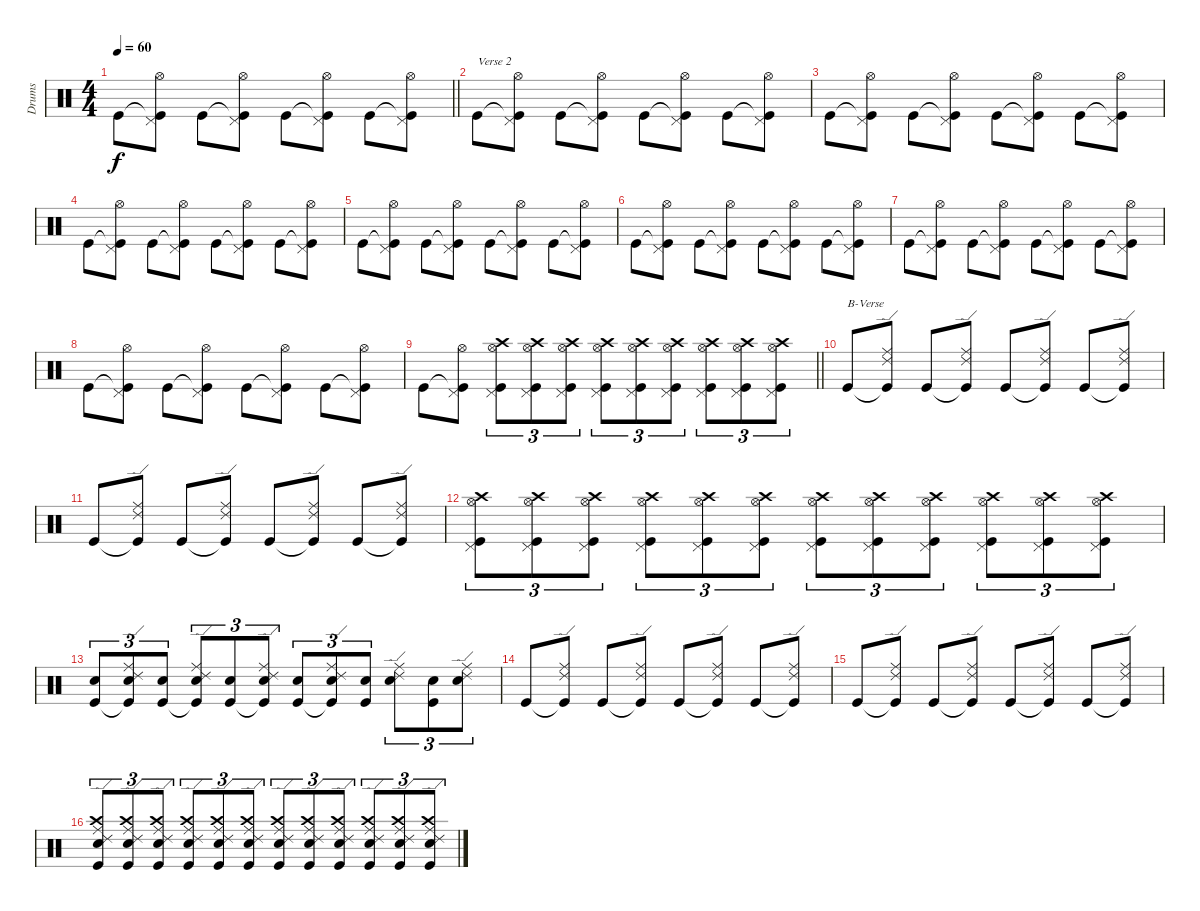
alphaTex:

\track ("Drums" "Drums") {instrument percussion}
\staff {score}
\articulation defaults
\ts (4 4)
\tempo 60
\clef neutral
\barLineRight lightlight
\ks c "Kick (hit)".8{dy f}
("Kick (hit)"{t} "Pedal Hi-Hat (hit)" "Hi-Hat (open)").8 "Kick (hit)".8 ("Kick (hit)"{t} "Pedal Hi-Hat (hit)" "Hi-Hat (open)").8 "Kick (hit)".8 ("Kick (hit)"{t} "Pedal Hi-Hat (hit)" "Hi-Hat (open)").8 "Kick (hit)".8 ("Kick (hit)"{t} "Pedal Hi-Hat (hit)" "Hi-Hat (open)").8 |
"Kick (hit)".8{txt "Verse 2"} ("Kick (hit)"{t} "Pedal Hi-Hat (hit)" "Hi-Hat (open)").8 "Kick (hit)".8 ("Kick (hit)"{t} "Pedal Hi-Hat (hit)" "Hi-Hat (open)").8 "Kick (hit)".8 ("Kick (hit)"{t} "Pedal Hi-Hat (hit)" "Hi-Hat (open)").8 "Kick (hit)".8 ("Kick (hit)"{t} "Pedal Hi-Hat (hit)" "Hi-Hat (open)").8 |
"Kick (hit)".8 ("Kick (hit)"{t} "Pedal Hi-Hat (hit)" "Hi-Hat (open)").8 "Kick (hit)".8 ("Kick (hit)"{t} "Pedal Hi-Hat (hit)" "Hi-Hat (open)").8 "Kick (hit)".8 ("Kick (hit)"{t} "Pedal Hi-Hat (hit)" "Hi-Hat (open)").8 "Kick (hit)".8 ("Kick (hit)"{t} "Pedal Hi-Hat (hit)" "Hi-Hat (open)").8 |
"Kick (hit)".8 ("Kick (hit)"{t} "Pedal Hi-Hat (hit)" "Hi-Hat (open)").8 "Kick (hit)".8 ("Kick (hit)"{t} "Pedal Hi-Hat (hit)" "Hi-Hat (open)").8 "Kick (hit)".8 ("Kick (hit)"{t} "Pedal Hi-Hat (hit)" "Hi-Hat (open)").8 "Kick (hit)".8 ("Kick (hit)"{t} "Pedal Hi-Hat (hit)" "Hi-Hat (open)").8 |
"Kick (hit)".8 ("Kick (hit)"{t} "Pedal Hi-Hat (hit)" "Hi-Hat (open)").8 "Kick (hit)".8 ("Kick (hit)"{t} "Pedal Hi-Hat (hit)" "Hi-Hat (open)").8 "Kick (hit)".8 ("Kick (hit)"{t} "Pedal Hi-Hat (hit)" "Hi-Hat (open)").8 "Kick (hit)".8 ("Kick (hit)"{t} "Pedal Hi-Hat (hit)" "Hi-Hat (open)").8 |
"Kick (hit)".8 ("Kick (hit)"{t} "Pedal Hi-Hat (hit)" "Hi-Hat (open)").8 "Kick (hit)".8 ("Kick (hit)"{t} "Pedal Hi-Hat (hit)" "Hi-Hat (open)").8 "Kick (hit)".8 ("Kick (hit)"{t} "Pedal Hi-Hat (hit)" "Hi-Hat (open)").8 "Kick (hit)".8 ("Kick (hit)"{t} "Pedal Hi-Hat (hit)" "Hi-Hat (open)").8 |
"Kick (hit)".8 ("Kick (hit)"{t} "Pedal Hi-Hat (hit)" "Hi-Hat (open)").8 "Kick (hit)".8 ("Kick (hit)"{t} "Pedal Hi-Hat (hit)" "Hi-Hat (open)").8 "Kick (hit)".8 ("Kick (hit)"{t} "Pedal Hi-Hat (hit)" "Hi-Hat (open)").8 "Kick (hit)".8 ("Kick (hit)"{t} "Pedal Hi-Hat (hit)" "Hi-Hat (open)").8 |
"Kick (hit)".8 ("Kick (hit)"{t} "Pedal Hi-Hat (hit)" "Hi-Hat (open)").8 "Kick (hit)".8 ("Kick (hit)"{t} "Pedal Hi-Hat (hit)" "Hi-Hat (open)").8 "Kick (hit)".8 ("Kick (hit)"{t} "Pedal Hi-Hat (hit)" "Hi-Hat (open)").8 "Kick (hit)".8 ("Kick (hit)"{t} "Pedal Hi-Hat (hit)" "Hi-Hat (open)").8 |
\barLineRight lightlight "Kick (hit)".8
("Kick (hit)"{t} "Pedal Hi-Hat (hit)" "Hi-Hat (open)").8 ("Kick (hit)" "Pedal Hi-Hat (hit)" "Hi-Hat (open)" "Crash high (hit)").8{tu (3 2)} ("Kick (hit)" "Pedal Hi-Hat (hit)" "Hi-Hat (open)" "Crash high (hit)").8{tu (3 2)} ("Kick (hit)" "Pedal Hi-Hat (hit)" "Hi-Hat (open)" "Crash high (hit)").8{tu (3 2)} ("Kick (hit)" "Pedal Hi-Hat (hit)" "Hi-Hat (open)" "Crash high (hit)").8{tu (3 2)} ("Kick (hit)" "Pedal Hi-Hat (hit)" "Hi-Hat (open)" "Crash high (hit)").8{tu (3 2)} ("Kick (hit)" "Pedal Hi-Hat (hit)" "Hi-Hat (open)" "Crash high (hit)").8{tu (3 2)} ("Kick (hit)" "Pedal Hi-Hat (hit)" "Hi-Hat (open)" "Crash high (hit)").8{tu (3 2)} ("Kick (hit)" "Pedal Hi-Hat (hit)" "Hi-Hat (open)" "Crash high (hit)").8{tu (3 2)} ("Kick (hit)" "Pedal Hi-Hat (hit)" "Hi-Hat (open)" "Crash high (hit)").8{tu (3 2)} |
"Kick (hit)".8{txt "B-Verse"} ("Kick (hit)"{t} "Ride (middle)" "Ride (edge) 2").8 "Kick (hit)".8 ("Kick (hit)"{t} "Ride (middle)" "Ride (edge) 2").8 "Kick (hit)".8 ("Kick (hit)"{t} "Ride (middle)" "Ride (edge) 2").8 "Kick (hit)".8 ("Kick (hit)"{t} "Ride (middle)" "Ride (edge) 2").8 |
"Kick (hit)".8 ("Kick (hit)"{t} "Ride (middle)" "Ride (edge) 2").8 "Kick (hit)".8 ("Kick (hit)"{t} "Ride (middle)" "Ride (edge) 2").8 "Kick (hit)".8 ("Kick (hit)"{t} "Ride (middle)" "Ride (edge) 2").8 "Kick (hit)".8 ("Kick (hit)"{t} "Ride (middle)" "Ride (edge) 2").8 |
("Kick (hit)" "Pedal Hi-Hat (hit)" "Hi-Hat (open)" "Crash high (hit)").8{tu (3 2)} ("Kick (hit)" "Pedal Hi-Hat (hit)" "Hi-Hat (open)" "Crash high (hit)").8{tu (3 2)} ("Kick (hit)" "Pedal Hi-Hat (hit)" "Hi-Hat (open)" "Crash high (hit)").8{tu (3 2)} ("Kick (hit)" "Pedal Hi-Hat (hit)" "Hi-Hat (open)" "Crash high (hit)").8{tu (3 2)} ("Kick (hit)" "Pedal Hi-Hat (hit)" "Hi-Hat (open)" "Crash high (hit)").8{tu (3 2)} ("Kick (hit)" "Pedal Hi-Hat (hit)" "Hi-Hat (open)" "Crash high (hit)").8{tu (3 2)} ("Kick (hit)" "Pedal Hi-Hat (hit)" "Hi-Hat (open)" "Crash high (hit)").8{tu (3 2)} ("Kick (hit)" "Pedal Hi-Hat (hit)" "Hi-Hat (open)" "Crash high (hit)").8{tu (3 2)} ("Kick (hit)" "Pedal Hi-Hat (hit)" "Hi-Hat (open)" "Crash high (hit)").8{tu (3 2)} ("Kick (hit)" "Pedal Hi-Hat (hit)" "Hi-Hat (open)" "Crash high (hit)").8{tu (3 2)} ("Kick (hit)" "Pedal Hi-Hat (hit)" "Hi-Hat (open)" "Crash high (hit)").8{tu (3 2)} ("Kick (hit)" "Pedal Hi-Hat (hit)" "Hi-Hat (open)" "Crash high (hit)").8{tu (3 2)} |
("Kick (hit)" "Electric Snare (hit)").8{tu (3 2)} ("Kick (hit)"{t} "Electric Snare (hit)" "Ride (middle)" "Ride (edge) 2").8{tu (3 2)} ("Kick (hit)" "Electric Snare (hit)").8{tu (3 2)} ("Kick (hit)"{t} "Electric Snare (hit)" "Ride (middle)" "Ride (edge) 2").8{tu (3 2)} ("Kick (hit)" "Electric Snare (hit)").8{tu (3 2)} ("Kick (hit)"{t} "Electric Snare (hit)" "Ride (middle)" "Ride (edge) 2").8{tu (3 2)} ("Kick (hit)" "Electric Snare (hit)").8{tu (3 2)} ("Kick (hit)"{t} "Electric Snare (hit)" "Ride (middle)" "Ride (edge) 2").8{tu (3 2)} ("Kick (hit)" "Electric Snare (hit)").8{tu (3 2)} ("Electric Snare (hit)" "Ride (middle)" "Ride (edge) 2").8{tu (3 2)} ("Kick (hit)" "Electric Snare (hit)").8{tu (3 2)} ("Electric Snare (hit)" "Ride (middle)" "Ride (edge) 2").8{tu (3 2)} |
"Kick (hit)".8 ("Kick (hit)"{t} "Ride (middle)" "Ride (edge) 2").8 "Kick (hit)".8 ("Kick (hit)"{t} "Ride (middle)" "Ride (edge) 2").8 "Kick (hit)".8 ("Kick (hit)"{t} "Ride (middle)" "Ride (edge) 2").8 "Kick (hit)".8 ("Kick (hit)"{t} "Ride (middle)" "Ride (edge) 2").8 |
"Kick (hit)".8 ("Kick (hit)"{t} "Ride (middle)" "Ride (edge) 2").8 "Kick (hit)".8 ("Kick (hit)"{t} "Ride (middle)" "Ride (edge) 2").8 "Kick (hit)".8 ("Kick (hit)"{t} "Ride (middle)" "Ride (edge) 2").8 "Kick (hit)".8 ("Kick (hit)"{t} "Ride (middle)" "Ride (edge) 2").8 |
("Kick (hit)" "Electric Snare (hit)" "Ride (middle)" "Ride (edge) 2" "Crash high (hit)").8{tu (3 2)} ("Kick (hit)" "Electric Snare (hit)" "Ride (middle)" "Ride (edge) 2" "Crash high (hit)").8{tu (3 2)} ("Kick (hit)" "Electric Snare (hit)" "Ride (middle)" "Ride (edge) 2" "Crash high (hit)").8{tu (3 2)} ("Kick (hit)" "Electric Snare (hit)" "Ride (middle)" "Ride (edge) 2" "Crash high (hit)").8{tu (3 2)} ("Kick (hit)" "Electric Snare (hit)" "Ride (middle)" "Ride (edge) 2" "Crash high (hit)").8{tu (3 2)} ("Kick (hit)" "Electric Snare (hit)" "Ride (middle)" "Ride (edge) 2" "Crash high (hit)").8{tu (3 2)} ("Kick (hit)" "Electric Snare (hit)" "Ride (middle)" "Ride (edge) 2" "Crash high (hit)").8{tu (3 2)} ("Kick (hit)" "Electric Snare (hit)" "Ride (middle)" "Ride (edge) 2" "Crash high (hit)").8{tu (3 2)} ("Kick (hit)" "Electric Snare (hit)" "Ride (middle)" "Ride (edge) 2" "Crash high (hit)").8{tu (3 2)} ("Kick (hit)" "Electric Snare (hit)" "Ride (middle)" "Ride (edge) 2" "Crash high (hit)").8{tu (3 2)} ("Kick (hit)" "Electric Snare (hit)" "Ride (middle)" "Ride (edge) 2" "Crash high (hit)").8{tu (3 2)} ("Kick (hit)" "Electric Snare (hit)" "Ride (middle)" "Ride (edge) 2" "Crash high (hit)").8{tu (3 2)}
